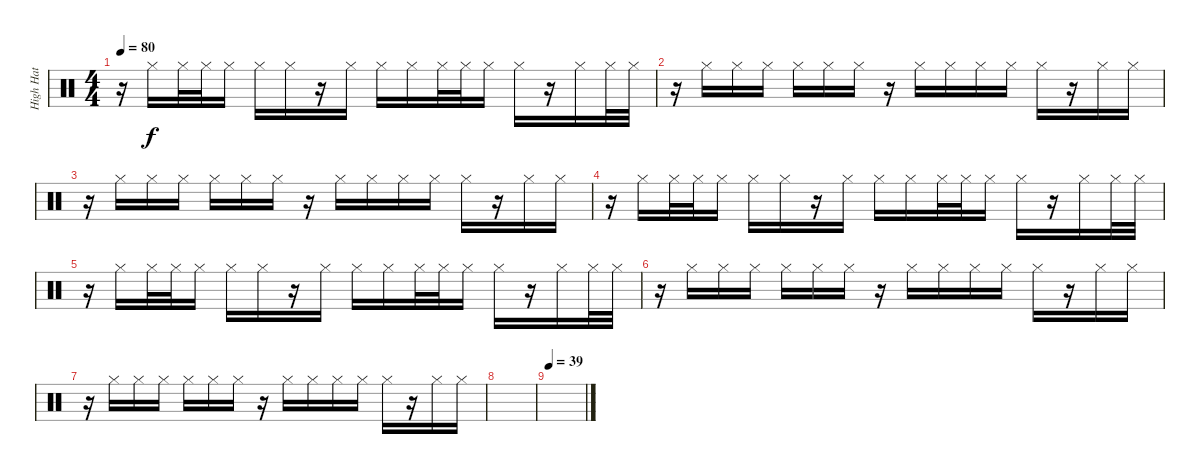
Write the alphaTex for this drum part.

\track ("High Hat" "High Hat") {instrument percussion}
\staff {score}
\articulation defaults
\ts (4 4)
\tempo 80
\clef neutral
\ks c
r.16{dy f} "Hi-Hat (closed)".16 "Hi-Hat (closed)".32 "Hi-Hat (closed)".32 "Hi-Hat (closed)".16 "Hi-Hat (closed)".16 "Hi-Hat (closed)".16 r.16 "Hi-Hat (closed)".16 "Hi-Hat (closed)".16 "Hi-Hat (closed)".16 "Hi-Hat (closed)".32 "Hi-Hat (closed)".32 "Hi-Hat (closed)".16 "Hi-Hat (closed)".16 r.16 "Hi-Hat (closed)".16 "Hi-Hat (closed)".32 "Hi-Hat (closed)".32 |
r.16 "Hi-Hat (closed)".16 "Hi-Hat (closed)".16 "Hi-Hat (closed)".16 "Hi-Hat (closed)".16 "Hi-Hat (closed)".16 "Hi-Hat (closed)".16 r.16 "Hi-Hat (closed)".16 "Hi-Hat (closed)".16 "Hi-Hat (closed)".16 "Hi-Hat (closed)".16 "Hi-Hat (closed)".16 r.16 "Hi-Hat (closed)".16 "Hi-Hat (closed)".16 |
r.16 "Hi-Hat (closed)".16 "Hi-Hat (closed)".16 "Hi-Hat (closed)".16 "Hi-Hat (closed)".16 "Hi-Hat (closed)".16 "Hi-Hat (closed)".16 r.16 "Hi-Hat (closed)".16 "Hi-Hat (closed)".16 "Hi-Hat (closed)".16 "Hi-Hat (closed)".16 "Hi-Hat (closed)".16 r.16 "Hi-Hat (closed)".16 "Hi-Hat (closed)".16 |
r.16 "Hi-Hat (closed)".16 "Hi-Hat (closed)".32 "Hi-Hat (closed)".32 "Hi-Hat (closed)".16 "Hi-Hat (closed)".16 "Hi-Hat (closed)".16 r.16 "Hi-Hat (closed)".16 "Hi-Hat (closed)".16 "Hi-Hat (closed)".16 "Hi-Hat (closed)".32 "Hi-Hat (closed)".32 "Hi-Hat (closed)".16 "Hi-Hat (closed)".16 r.16 "Hi-Hat (closed)".16 "Hi-Hat (closed)".32 "Hi-Hat (closed)".32 |
r.16 "Hi-Hat (closed)".16 "Hi-Hat (closed)".32 "Hi-Hat (closed)".32 "Hi-Hat (closed)".16 "Hi-Hat (closed)".16 "Hi-Hat (closed)".16 r.16 "Hi-Hat (closed)".16 "Hi-Hat (closed)".16 "Hi-Hat (closed)".16 "Hi-Hat (closed)".32 "Hi-Hat (closed)".32 "Hi-Hat (closed)".16 "Hi-Hat (closed)".16 r.16 "Hi-Hat (closed)".16 "Hi-Hat (closed)".32 "Hi-Hat (closed)".32 |
r.16 "Hi-Hat (closed)".16 "Hi-Hat (closed)".16 "Hi-Hat (closed)".16 "Hi-Hat (closed)".16 "Hi-Hat (closed)".16 "Hi-Hat (closed)".16 r.16 "Hi-Hat (closed)".16 "Hi-Hat (closed)".16 "Hi-Hat (closed)".16 "Hi-Hat (closed)".16 "Hi-Hat (closed)".16 r.16 "Hi-Hat (closed)".16 "Hi-Hat (closed)".16 |
r.16 "Hi-Hat (closed)".16 "Hi-Hat (closed)".16 "Hi-Hat (closed)".16 "Hi-Hat (closed)".16 "Hi-Hat (closed)".16 "Hi-Hat (closed)".16 r.16 "Hi-Hat (closed)".16 "Hi-Hat (closed)".16 "Hi-Hat (closed)".16 "Hi-Hat (closed)".16 "Hi-Hat (closed)".16 r.16 "Hi-Hat (closed)".16 "Hi-Hat (closed)".16 |
|
\tempo 39
